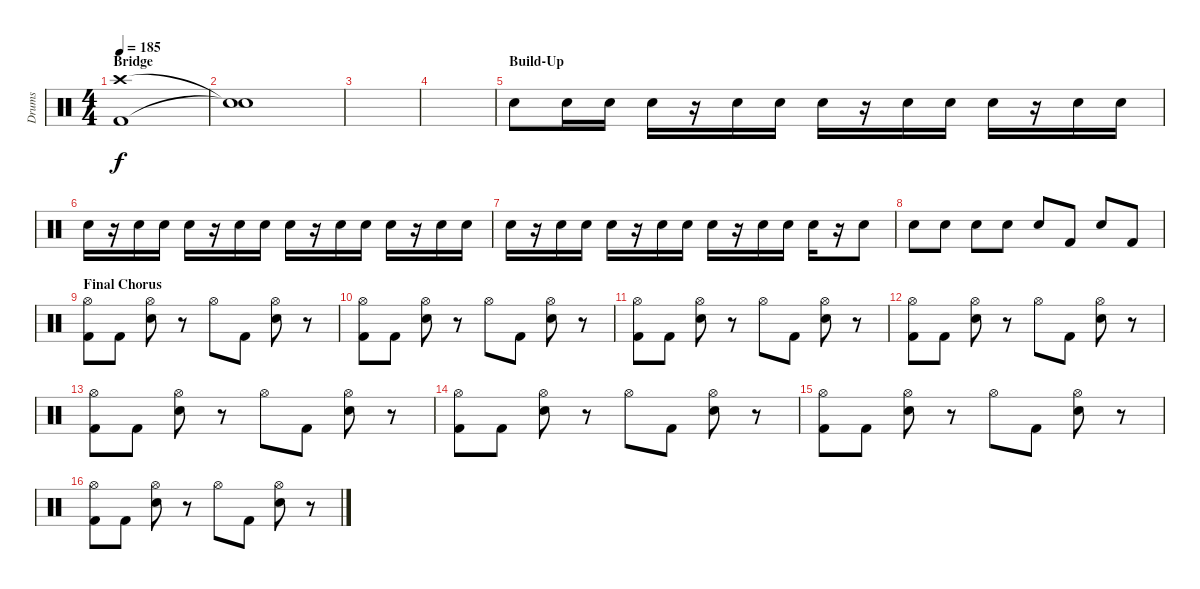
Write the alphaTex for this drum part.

\track ("Drums" "Drums") {instrument percussion}
\staff {score}
\articulation defaults
\ts (4 4)
\section ("" "Bridge")
\tempo 185
\clef neutral
\ks c
("Kick (hit) 2" "Crash high (hit)").1{dy f} |
("Snare (hit)"{t} "Snare (hit)"{t}).1 |
|
|
\section ("" "Build-Up")
"Electric Snare (hit)".8{volume 6} "Electric Snare (hit)".16{volume 16} "Electric Snare (hit)".16 "Electric Snare (hit)".16 r.16 "Electric Snare (hit)".16 "Electric Snare (hit)".16 "Electric Snare (hit)".16 r.16 "Electric Snare (hit)".16 "Electric Snare (hit)".16 "Electric Snare (hit)".16 r.16 "Electric Snare (hit)".16 "Electric Snare (hit)".16 |
"Electric Snare (hit)".16 r.16 "Electric Snare (hit)".16 "Electric Snare (hit)".16 "Electric Snare (hit)".16 r.16 "Electric Snare (hit)".16 "Electric Snare (hit)".16 "Electric Snare (hit)".16 r.16 "Electric Snare (hit)".16 "Electric Snare (hit)".16 "Electric Snare (hit)".16 r.16 "Electric Snare (hit)".16 "Electric Snare (hit)".16 |
"Electric Snare (hit)".16 r.16 "Electric Snare (hit)".16 "Electric Snare (hit)".16 "Electric Snare (hit)".16 r.16 "Electric Snare (hit)".16 "Electric Snare (hit)".16 "Electric Snare (hit)".16 r.16 "Electric Snare (hit)".16 "Electric Snare (hit)".16 "Electric Snare (hit)".16 r.16 "Electric Snare (hit)".8 |
"Electric Snare (hit)".8 "Electric Snare (hit)".8 "Electric Snare (hit)".8 "Electric Snare (hit)".8 "Electric Snare (hit)".8 "Kick (hit) 2".8 "Electric Snare (hit)".8 "Kick (hit) 2".8 |
\section ("" "Final Chorus")
("Hi-Hat (open)" "Kick (hit) 2").8{volume 13} "Kick (hit) 2".8 ("Hi-Hat (open)" "Electric Snare (hit)").8 r.8 "Hi-Hat (open)".8 "Kick (hit) 2".8 ("Hi-Hat (open)" "Electric Snare (hit)").8 r.8 |
("Hi-Hat (open)" "Kick (hit) 2").8 "Kick (hit) 2".8 ("Hi-Hat (open)" "Electric Snare (hit)").8 r.8 "Hi-Hat (open)".8 "Kick (hit) 2".8 ("Hi-Hat (open)" "Electric Snare (hit)").8 r.8 |
("Hi-Hat (open)" "Kick (hit) 2").8 "Kick (hit) 2".8 ("Hi-Hat (open)" "Electric Snare (hit)").8 r.8 "Hi-Hat (open)".8 "Kick (hit) 2".8 ("Hi-Hat (open)" "Electric Snare (hit)").8 r.8 |
("Hi-Hat (open)" "Kick (hit) 2").8 "Kick (hit) 2".8 ("Hi-Hat (open)" "Electric Snare (hit)").8 r.8 "Hi-Hat (open)".8 "Kick (hit) 2".8 ("Hi-Hat (open)" "Electric Snare (hit)").8 r.8 |
("Hi-Hat (open)" "Kick (hit) 2").8 "Kick (hit) 2".8 ("Hi-Hat (open)" "Electric Snare (hit)").8 r.8 "Hi-Hat (open)".8 "Kick (hit) 2".8 ("Hi-Hat (open)" "Electric Snare (hit)").8 r.8 |
("Hi-Hat (open)" "Kick (hit) 2").8 "Kick (hit) 2".8 ("Hi-Hat (open)" "Electric Snare (hit)").8 r.8 "Hi-Hat (open)".8 "Kick (hit) 2".8 ("Hi-Hat (open)" "Electric Snare (hit)").8 r.8 |
("Hi-Hat (open)" "Kick (hit) 2").8 "Kick (hit) 2".8 ("Hi-Hat (open)" "Electric Snare (hit)").8 r.8 "Hi-Hat (open)".8 "Kick (hit) 2".8 ("Hi-Hat (open)" "Electric Snare (hit)").8 r.8 |
("Hi-Hat (open)" "Kick (hit) 2").8 "Kick (hit) 2".8 ("Hi-Hat (open)" "Electric Snare (hit)").8 r.8 "Hi-Hat (open)".8 "Kick (hit) 2".8 ("Hi-Hat (open)" "Electric Snare (hit)").8 r.8
